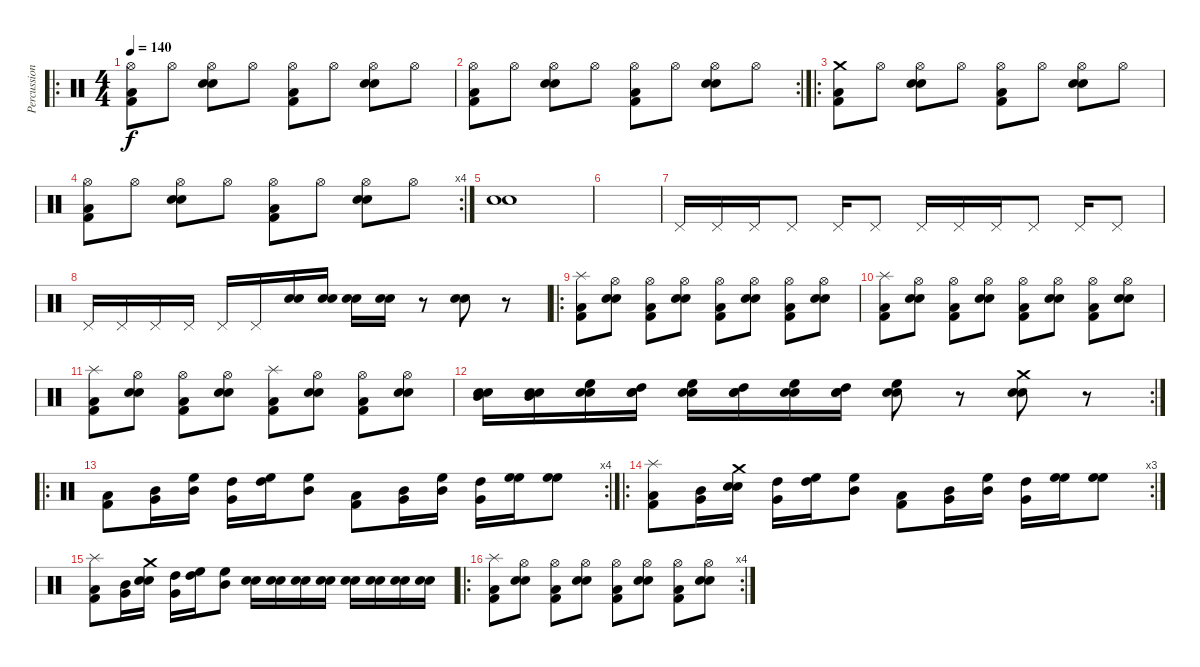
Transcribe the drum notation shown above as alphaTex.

\track ("Percussions" "Percussion") {instrument percussion}
\staff {score}
\articulation defaults
\ro
\ts (4 4)
\tempo 140
\clef neutral
\ks c
("Hi-Hat (open)" "Kick (hit) 2" "Low Floor Tom (hit)").8{dy f} "Hi-Hat (open)".8 ("Hi-Hat (open)" "Snare (hit) 2" "Electric Snare (hit)").8 "Hi-Hat (open)".8 ("Hi-Hat (open)" "Kick (hit) 2" "Low Floor Tom (hit)").8 "Hi-Hat (open)".8 ("Hi-Hat (open)" "Snare (hit) 2" "Electric Snare (hit)").8 "Hi-Hat (open)".8 |
\rc 2
("Hi-Hat (open)" "Kick (hit) 2" "Low Floor Tom (hit)").8 "Hi-Hat (open)".8 ("Hi-Hat (open)" "Snare (hit) 2" "Electric Snare (hit)").8 "Hi-Hat (open)".8 ("Hi-Hat (open)" "Kick (hit) 2" "Low Floor Tom (hit)").8 "Hi-Hat (open)".8 ("Hi-Hat (open)" "Snare (hit) 2" "Electric Snare (hit)").8 "Hi-Hat (open)".8 |
\ro
("Crash medium (hit)" "Kick (hit) 2" "Low Floor Tom (hit)").8 "Hi-Hat (open)".8 ("Hi-Hat (open)" "Snare (hit) 2" "Electric Snare (hit)").8 "Hi-Hat (open)".8 ("Hi-Hat (open)" "Kick (hit) 2" "Low Floor Tom (hit)").8 "Hi-Hat (open)".8 ("Hi-Hat (open)" "Snare (hit) 2" "Electric Snare (hit)").8 "Hi-Hat (open)".8 |
\rc 4
("Hi-Hat (open)" "Kick (hit) 2" "Low Floor Tom (hit)").8 "Hi-Hat (open)".8 ("Hi-Hat (open)" "Snare (hit) 2" "Electric Snare (hit)").8 "Hi-Hat (open)".8 ("Hi-Hat (open)" "Kick (hit) 2" "Low Floor Tom (hit)").8 "Hi-Hat (open)".8 ("Hi-Hat (open)" "Snare (hit) 2" "Electric Snare (hit)").8 "Hi-Hat (open)".8 |
("Snare (hit) 2" "Electric Snare (hit)").1 |
|
"Pedal Hi-Hat (hit)".16 "Pedal Hi-Hat (hit)".16 "Pedal Hi-Hat (hit)".16 "Pedal Hi-Hat (hit)".8 "Pedal Hi-Hat (hit)".16 "Pedal Hi-Hat (hit)".8 "Pedal Hi-Hat (hit)".16 "Pedal Hi-Hat (hit)".16 "Pedal Hi-Hat (hit)".16 "Pedal Hi-Hat (hit)".8 "Pedal Hi-Hat (hit)".16 "Pedal Hi-Hat (hit)".8 |
"Pedal Hi-Hat (hit)".16 "Pedal Hi-Hat (hit)".16 "Pedal Hi-Hat (hit)".16 "Pedal Hi-Hat (hit)".16 "Pedal Hi-Hat (hit)".16 "Pedal Hi-Hat (hit)".16 ("Snare (hit) 2" "Electric Snare (hit)").16 ("Snare (hit) 2" "Electric Snare (hit)").16 ("Snare (hit) 2" "Electric Snare (hit)").16 ("Snare (hit) 2" "Electric Snare (hit)").16 r.8 ("Snare (hit) 2" "Electric Snare (hit)").8 r.8 |
\ro
("Splash (hit)" "Kick (hit) 2" "Low Floor Tom (hit)").8 ("Hi-Hat (open)" "Snare (hit) 2" "Electric Snare (hit)").8 ("Hi-Hat (open)" "Kick (hit) 2" "Low Floor Tom (hit)").8 ("Hi-Hat (open)" "Snare (hit) 2" "Electric Snare (hit)").8 ("Hi-Hat (open)" "Kick (hit) 2" "Low Floor Tom (hit)").8 ("Hi-Hat (open)" "Snare (hit) 2" "Electric Snare (hit)").8 ("Hi-Hat (open)" "Kick (hit) 2" "Low Floor Tom (hit)").8 ("Hi-Hat (open)" "Snare (hit) 2" "Electric Snare (hit)").8 |
("Splash (hit)" "Kick (hit) 2" "Low Floor Tom (hit)").8 ("Hi-Hat (open)" "Snare (hit) 2" "Electric Snare (hit)").8 ("Hi-Hat (open)" "Kick (hit) 2" "Low Floor Tom (hit)").8 ("Hi-Hat (open)" "Snare (hit) 2" "Electric Snare (hit)").8 ("Hi-Hat (open)" "Kick (hit) 2" "Low Floor Tom (hit)").8 ("Hi-Hat (open)" "Snare (hit) 2" "Electric Snare (hit)").8 ("Hi-Hat (open)" "Kick (hit) 2" "Low Floor Tom (hit)").8 ("Hi-Hat (open)" "Snare (hit) 2" "Electric Snare (hit)").8 |
("Splash (hit)" "Kick (hit) 2" "Low Floor Tom (hit)").8 ("Hi-Hat (open)" "Snare (hit) 2" "Electric Snare (hit)").8 ("Hi-Hat (open)" "Kick (hit) 2" "Low Floor Tom (hit)").8 ("Hi-Hat (open)" "Snare (hit) 2" "Electric Snare (hit)").8 ("Splash (hit)" "Kick (hit) 2" "Low Floor Tom (hit)").8 ("Hi-Hat (open)" "Snare (hit) 2" "Electric Snare (hit)").8 ("Hi-Hat (open)" "Kick (hit) 2" "Low Floor Tom (hit)").8 ("Hi-Hat (open)" "Snare (hit) 2" "Electric Snare (hit)").8 |
\rc 2
("Mid Tom (hit)" "Snare (hit) 2" "Electric Snare (hit)").16 ("Mid Tom (hit)" "Snare (hit) 2" "Electric Snare (hit)").16 ("High Floor Tom (hit)" "Snare (hit) 2" "Electric Snare (hit)").16 ("High Tom (hit)" "Snare (hit) 2" "Electric Snare (hit)").16 ("High Floor Tom (hit)" "Snare (hit) 2" "Electric Snare (hit)").16 ("High Tom (hit)" "Snare (hit) 2" "Electric Snare (hit)").16 ("High Floor Tom (hit)" "Snare (hit) 2" "Electric Snare (hit)").16 ("High Tom (hit)" "Snare (hit) 2" "Electric Snare (hit)").16 ("High Floor Tom (hit)" "Snare (hit) 2" "Electric Snare (hit)").8 r.8 ("Crash medium (hit)" "Snare (hit) 2" "Electric Snare (hit)").8 r.8 |
\ro
\rc 4
("Kick (hit) 2" "Low Floor Tom (hit)").8 ("Mid Tom (hit)" "Very Low Tom (hit)").16 ("High Floor Tom (hit)" "Mid Tom (hit)").16 ("Very Low Tom (hit)" "High Tom (hit)").16 ("High Tom (hit)" "High Floor Tom (hit)").16 ("Mid Tom (hit)" "High Floor Tom (hit)").8 ("Kick (hit) 2" "Low Floor Tom (hit)").8 ("Mid Tom (hit)" "Very Low Tom (hit)").16 ("High Floor Tom (hit)" "Mid Tom (hit)").16 ("Very Low Tom (hit)" "High Tom (hit)").16 ("High Floor Tom (hit)" "High Floor Tom (hit)").16 ("High Floor Tom (hit)" "High Floor Tom (hit)").8 |
\ro
\rc 3
("Splash (hit)" "Kick (hit) 2" "Low Floor Tom (hit)").8 ("Mid Tom (hit)" "Very Low Tom (hit)").16 ("Crash medium (hit)" "Snare (hit) 2" "Electric Snare (hit)").16 ("Very Low Tom (hit)" "High Tom (hit)").16 ("High Tom (hit)" "High Floor Tom (hit)").16 ("Mid Tom (hit)" "High Floor Tom (hit)").8 ("Kick (hit) 2" "Low Floor Tom (hit)").8 ("Mid Tom (hit)" "Very Low Tom (hit)").16 ("High Floor Tom (hit)" "Mid Tom (hit)").16 ("Very Low Tom (hit)" "High Tom (hit)").16 ("High Floor Tom (hit)" "High Floor Tom (hit)").16 ("High Floor Tom (hit)" "High Floor Tom (hit)").8 |
("Splash (hit)" "Kick (hit) 2" "Low Floor Tom (hit)").8 ("Mid Tom (hit)" "Very Low Tom (hit)").16 ("Crash medium (hit)" "Snare (hit) 2" "Electric Snare (hit)").16 ("Very Low Tom (hit)" "High Tom (hit)").16 ("High Tom (hit)" "High Floor Tom (hit)").16 ("Mid Tom (hit)" "High Floor Tom (hit)").8 ("Snare (hit) 2" "Electric Snare (hit)").16 ("Snare (hit) 2" "Electric Snare (hit)").16 ("Snare (hit) 2" "Electric Snare (hit)").16 ("Snare (hit) 2" "Electric Snare (hit)").16 ("Snare (hit) 2" "Electric Snare (hit)").16 ("Snare (hit) 2" "Electric Snare (hit)").16 ("Snare (hit) 2" "Electric Snare (hit)").16 ("Snare (hit) 2" "Electric Snare (hit)").16 |
\ro
\rc 4
("Splash (hit)" "Kick (hit) 2" "Low Floor Tom (hit)").8 ("Hi-Hat (open)" "Snare (hit) 2" "Electric Snare (hit)").8 ("Hi-Hat (open)" "Kick (hit) 2" "Low Floor Tom (hit)").8 ("Hi-Hat (open)" "Snare (hit) 2" "Electric Snare (hit)").8 ("Hi-Hat (open)" "Kick (hit) 2" "Low Floor Tom (hit)").8 ("Hi-Hat (open)" "Snare (hit) 2" "Electric Snare (hit)").8 ("Hi-Hat (open)" "Kick (hit) 2" "Low Floor Tom (hit)").8 ("Hi-Hat (open)" "Snare (hit) 2" "Electric Snare (hit)").8
